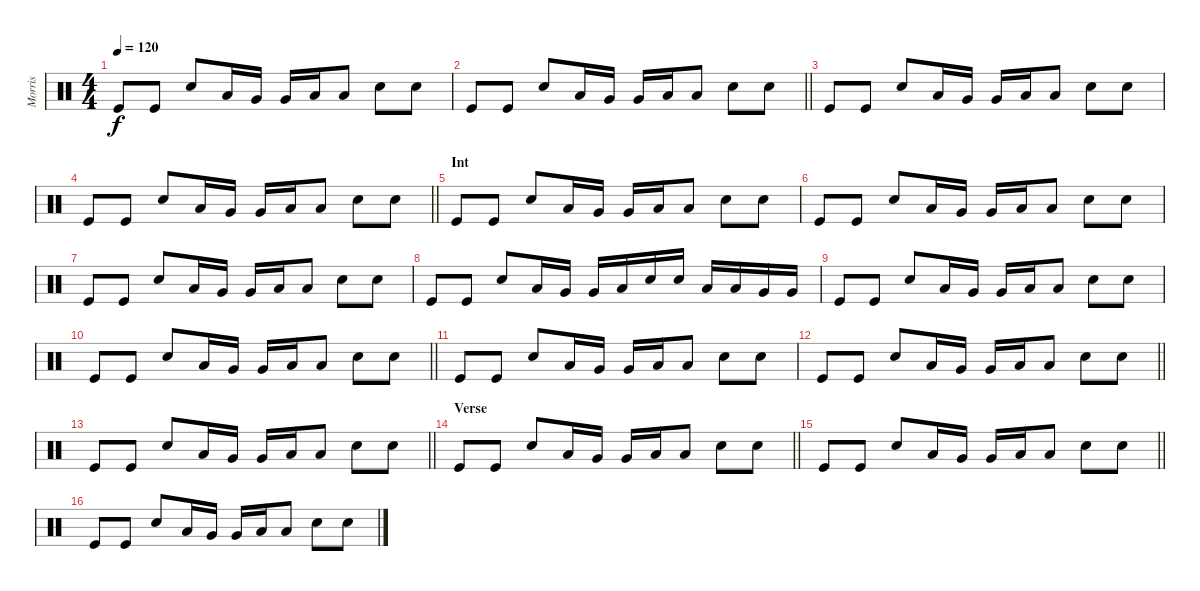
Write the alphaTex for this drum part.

\track ("Morris" "Morris") {instrument percussion}
\staff {score}
\articulation defaults
\ts (4 4)
\tempo 120
\clef neutral
\ks c "Kick (hit)".8{dy f} "Kick (hit)".8 "Electric Snare (hit)".8 "Low Floor Tom (hit)".16 "Very Low Tom (hit)".16 "Very Low Tom (hit)".16 "Low Floor Tom (hit)".16 "Low Tom (hit)".8 "Electric Snare (hit)".8 "Electric Snare (hit)".8
|
\barLineRight lightlight "Kick (hit)".8 "Kick (hit)".8 "Electric Snare (hit)".8 "Low Floor Tom (hit)".16 "Very Low Tom (hit)".16 "Very Low Tom (hit)".16 "Low Floor Tom (hit)".16 "Low Tom (hit)".8 "Electric Snare (hit)".8 "Electric Snare (hit)".8
|
"Kick (hit)".8 "Kick (hit)".8 "Electric Snare (hit)".8 "Low Floor Tom (hit)".16 "Very Low Tom (hit)".16 "Very Low Tom (hit)".16 "Low Floor Tom (hit)".16 "Low Tom (hit)".8 "Electric Snare (hit)".8 "Electric Snare (hit)".8 |
\barLineRight lightlight "Kick (hit)".8 "Kick (hit)".8 "Electric Snare (hit)".8 "Low Floor Tom (hit)".16 "Very Low Tom (hit)".16 "Very Low Tom (hit)".16 "Low Floor Tom (hit)".16 "Low Tom (hit)".8 "Electric Snare (hit)".8 "Electric Snare (hit)".8
|
\section ("" "Int")
"Kick (hit)".8 "Kick (hit)".8 "Electric Snare (hit)".8 "Low Floor Tom (hit)".16 "Very Low Tom (hit)".16 "Very Low Tom (hit)".16 "Low Floor Tom (hit)".16 "Low Tom (hit)".8 "Electric Snare (hit)".8 "Electric Snare (hit)".8 |
"Kick (hit)".8 "Kick (hit)".8 "Electric Snare (hit)".8 "Low Floor Tom (hit)".16 "Very Low Tom (hit)".16 "Very Low Tom (hit)".16 "Low Floor Tom (hit)".16 "Low Tom (hit)".8 "Electric Snare (hit)".8 "Electric Snare (hit)".8 |
"Kick (hit)".8 "Kick (hit)".8 "Electric Snare (hit)".8 "Low Floor Tom (hit)".16 "Very Low Tom (hit)".16 "Very Low Tom (hit)".16 "Low Floor Tom (hit)".16 "Low Tom (hit)".8 "Electric Snare (hit)".8 "Electric Snare (hit)".8 |
"Kick (hit)".8 "Kick (hit)".8 "Electric Snare (hit)".8 "Low Floor Tom (hit)".16 "Very Low Tom (hit)".16 "Very Low Tom (hit)".16 "Low Floor Tom (hit)".16 "Electric Snare (hit)".16 "Electric Snare (hit)".16 "Low Tom (hit)".16 "Low Tom (hit)".16 "Very Low Tom (hit)".16 "Very Low Tom (hit)".16 |
"Kick (hit)".8 "Kick (hit)".8 "Electric Snare (hit)".8 "Low Floor Tom (hit)".16 "Very Low Tom (hit)".16 "Very Low Tom (hit)".16 "Low Floor Tom (hit)".16 "Low Tom (hit)".8 "Electric Snare (hit)".8 "Electric Snare (hit)".8 |
\barLineRight lightlight "Kick (hit)".8 "Kick (hit)".8 "Electric Snare (hit)".8 "Low Floor Tom (hit)".16 "Very Low Tom (hit)".16 "Very Low Tom (hit)".16 "Low Floor Tom (hit)".16 "Low Tom (hit)".8 "Electric Snare (hit)".8 "Electric Snare (hit)".8
|
"Kick (hit)".8 "Kick (hit)".8 "Electric Snare (hit)".8 "Low Floor Tom (hit)".16 "Very Low Tom (hit)".16 "Very Low Tom (hit)".16 "Low Floor Tom (hit)".16 "Low Tom (hit)".8 "Electric Snare (hit)".8 "Electric Snare (hit)".8 |
\barLineRight lightlight "Kick (hit)".8 "Kick (hit)".8 "Electric Snare (hit)".8 "Low Floor Tom (hit)".16 "Very Low Tom (hit)".16 "Very Low Tom (hit)".16 "Low Floor Tom (hit)".16 "Low Tom (hit)".8 "Electric Snare (hit)".8 "Electric Snare (hit)".8
|
\barLineRight lightlight "Kick (hit)".8 "Kick (hit)".8 "Electric Snare (hit)".8 "Low Floor Tom (hit)".16 "Very Low Tom (hit)".16 "Very Low Tom (hit)".16 "Low Floor Tom (hit)".16 "Low Tom (hit)".8 "Electric Snare (hit)".8 "Electric Snare (hit)".8
|
\section ("" "Verse")
\barLineRight lightlight "Kick (hit)".8 "Kick (hit)".8 "Electric Snare (hit)".8 "Low Floor Tom (hit)".16 "Very Low Tom (hit)".16 "Very Low Tom (hit)".16 "Low Floor Tom (hit)".16 "Low Tom (hit)".8 "Electric Snare (hit)".8 "Electric Snare (hit)".8
|
\barLineRight lightlight "Kick (hit)".8 "Kick (hit)".8 "Electric Snare (hit)".8 "Low Floor Tom (hit)".16 "Very Low Tom (hit)".16 "Very Low Tom (hit)".16 "Low Floor Tom (hit)".16 "Low Tom (hit)".8 "Electric Snare (hit)".8 "Electric Snare (hit)".8
|
"Kick (hit)".8 "Kick (hit)".8 "Electric Snare (hit)".8 "Low Floor Tom (hit)".16 "Very Low Tom (hit)".16 "Very Low Tom (hit)".16 "Low Floor Tom (hit)".16 "Low Tom (hit)".8 "Electric Snare (hit)".8 "Electric Snare (hit)".8
